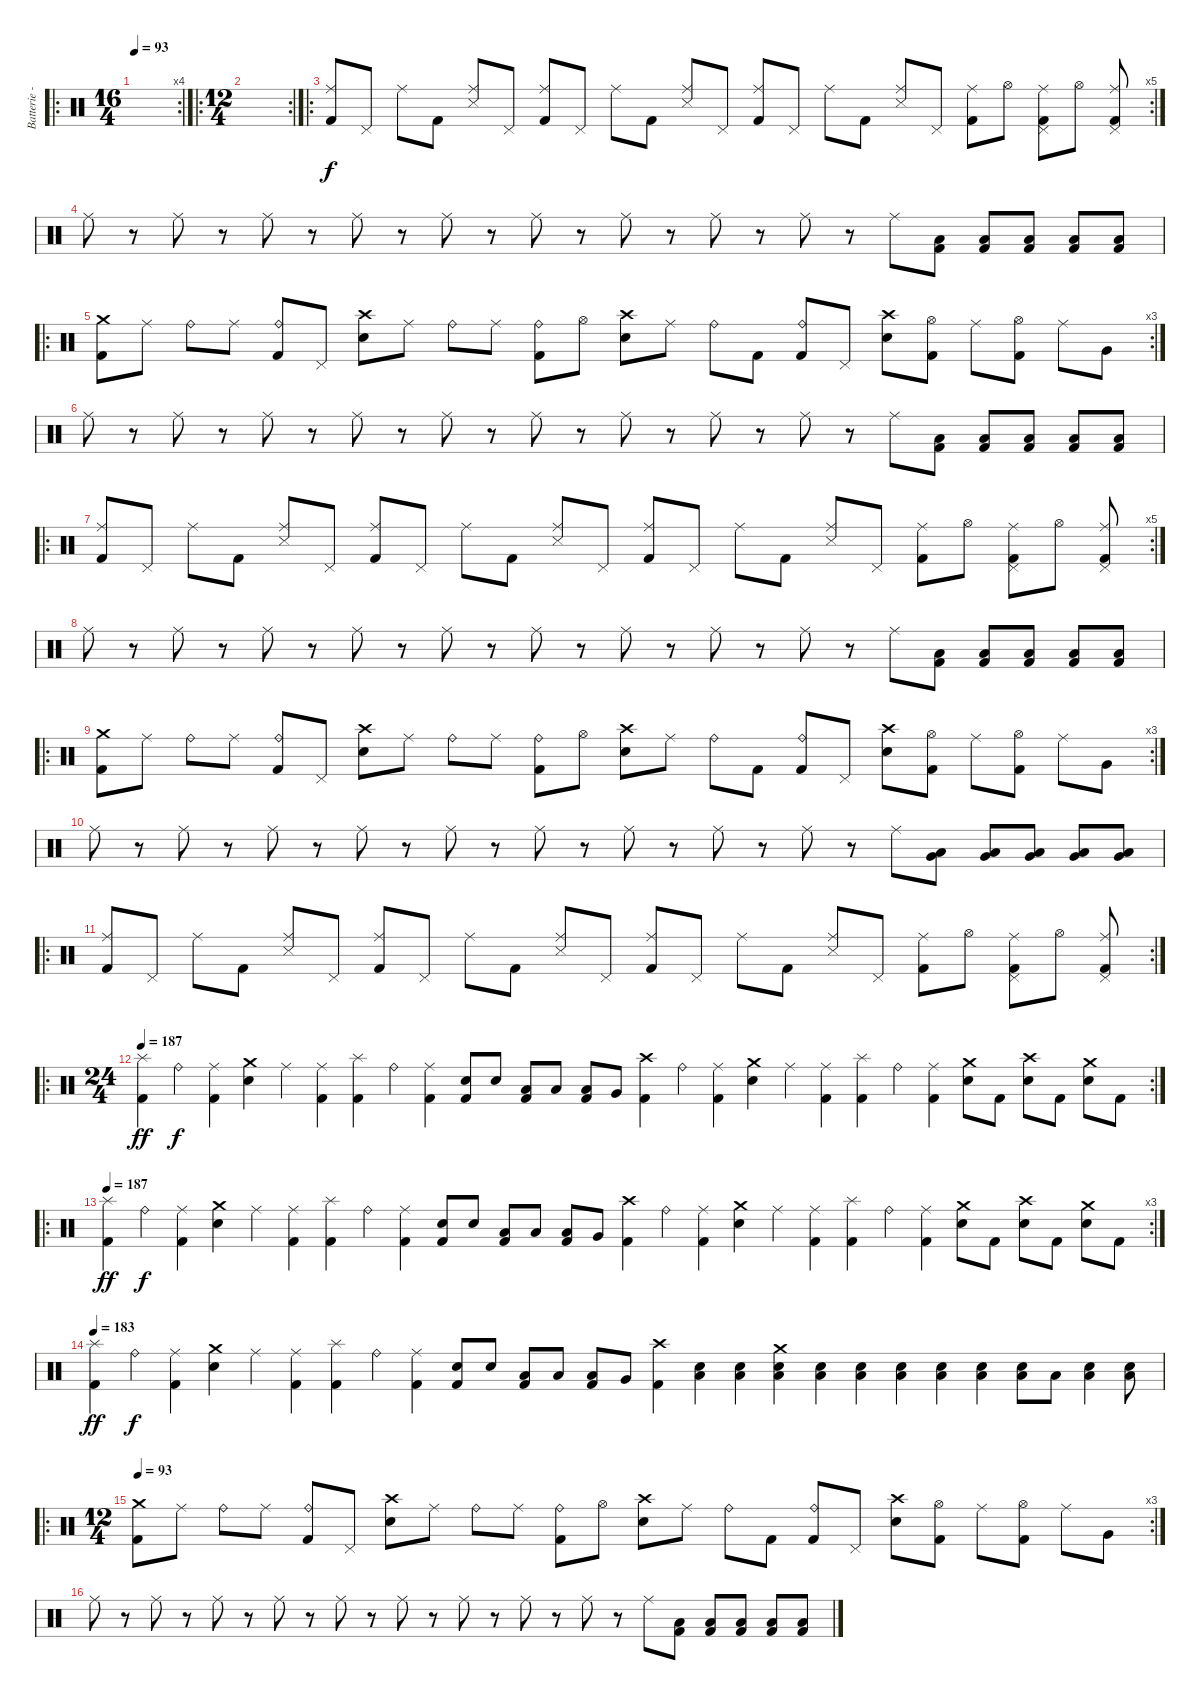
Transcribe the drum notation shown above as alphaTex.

\track ("Batterie - " "Batterie -") {instrument percussion}
\staff {score}
\articulation defaults
\ro
\rc 4
\ts (16 4)
\tempo 93
\clef neutral
\ks c
|
\ro
\rc 2
\ts (12 4)
|
\ro
\rc 5
("Kick (hit) 2" "Ride (middle)").8 "Pedal Hi-Hat (hit)".8 "Ride (middle)".8 "Kick (hit) 2".8 ("Snare (side stick) 3" "Ride (middle)").8 "Pedal Hi-Hat (hit)".8 ("Kick (hit) 2" "Ride (middle)").8 "Pedal Hi-Hat (hit)".8 "Ride (middle)".8 "Kick (hit) 2".8 ("Snare (side stick) 3" "Ride (middle)").8 "Pedal Hi-Hat (hit)".8 ("Kick (hit) 2" "Ride (middle)").8 "Pedal Hi-Hat (hit)".8 "Ride (middle)".8 "Kick (hit) 2".8 ("Snare (side stick) 3" "Ride (middle)").8 "Pedal Hi-Hat (hit)".8 ("Kick (hit) 2" "Ride (middle)").8 "Hi-Hat (open)".8 ("Kick (hit) 2" "Pedal Hi-Hat (hit)" "Ride (middle)").8 "Hi-Hat (open)".8 ("Kick (hit) 2" "Pedal Hi-Hat (hit)" "Ride (middle)").8 |
"Ride (middle)".8 r.8 "Ride (middle)".8 r.8 "Ride (middle)".8 r.8 "Ride (middle)".8 r.8 "Ride (middle)".8 r.8 "Ride (middle)".8 r.8 "Ride (middle)".8 r.8 "Ride (middle)".8 r.8 "Ride (middle)".8 r.8 "Ride (middle)".8 ("Kick (hit) 2" "Low Floor Tom (hit)").8 ("Kick (hit) 2" "Low Floor Tom (hit)").8 ("Kick (hit) 2" "Low Floor Tom (hit)").8 ("Kick (hit) 2" "Low Floor Tom (hit)").8 ("Kick (hit) 2" "Low Floor Tom (hit)").8 |
\ro
\rc 3
("Kick (hit) 2" "Crash medium (hit)").8 "Ride (middle)".8 "Ride (bell)".8 "Ride (middle)".8 ("Kick (hit) 2" "Ride (bell)").8 "Pedal Hi-Hat (hit)".8 ("Electric Snare (hit)" "Crash high (hit)").8 "Ride (middle)".8 "Ride (bell)".8 "Ride (middle)".8 ("Kick (hit) 2" "Ride (bell)").8 "Hi-Hat (open)".8 ("Electric Snare (hit)" "Crash high (hit)").8 "Ride (middle)".8 "Ride (bell)".8 "Kick (hit) 2".8 ("Kick (hit) 2" "Ride (bell)").8 "Pedal Hi-Hat (hit)".8 ("Electric Snare (hit)" "Crash high (hit)").8 ("Kick (hit) 2" "Hi-Hat (open)").8 "Ride (middle)".8 ("Kick (hit) 2" "Hi-Hat (open)").8 "Ride (middle)".8 "Very Low Tom (hit)".8 |
"Ride (middle)".8 r.8 "Ride (middle)".8 r.8 "Ride (middle)".8 r.8 "Ride (middle)".8 r.8 "Ride (middle)".8 r.8 "Ride (middle)".8 r.8 "Ride (middle)".8 r.8 "Ride (middle)".8 r.8 "Ride (middle)".8 r.8 "Ride (middle)".8 ("Kick (hit) 2" "Low Floor Tom (hit)").8 ("Kick (hit) 2" "Low Floor Tom (hit)").8 ("Kick (hit) 2" "Low Floor Tom (hit)").8 ("Kick (hit) 2" "Low Floor Tom (hit)").8 ("Kick (hit) 2" "Low Floor Tom (hit)").8 |
\ro
\rc 5
("Kick (hit) 2" "Ride (middle)").8 "Pedal Hi-Hat (hit)".8 "Ride (middle)".8 "Kick (hit) 2".8 ("Snare (side stick) 3" "Ride (middle)").8 "Pedal Hi-Hat (hit)".8 ("Kick (hit) 2" "Ride (middle)").8 "Pedal Hi-Hat (hit)".8 "Ride (middle)".8 "Kick (hit) 2".8 ("Snare (side stick) 3" "Ride (middle)").8 "Pedal Hi-Hat (hit)".8 ("Kick (hit) 2" "Ride (middle)").8 "Pedal Hi-Hat (hit)".8 "Ride (middle)".8 "Kick (hit) 2".8 ("Snare (side stick) 3" "Ride (middle)").8 "Pedal Hi-Hat (hit)".8 ("Kick (hit) 2" "Ride (middle)").8 "Hi-Hat (open)".8 ("Kick (hit) 2" "Pedal Hi-Hat (hit)" "Ride (middle)").8 "Hi-Hat (open)".8 ("Kick (hit) 2" "Pedal Hi-Hat (hit)" "Ride (middle)").8 |
"Ride (middle)".8 r.8 "Ride (middle)".8 r.8 "Ride (middle)".8 r.8 "Ride (middle)".8 r.8 "Ride (middle)".8 r.8 "Ride (middle)".8 r.8 "Ride (middle)".8 r.8 "Ride (middle)".8 r.8 "Ride (middle)".8 r.8 "Ride (middle)".8 ("Kick (hit) 2" "Low Floor Tom (hit)").8 ("Kick (hit) 2" "Low Floor Tom (hit)").8 ("Kick (hit) 2" "Low Floor Tom (hit)").8 ("Kick (hit) 2" "Low Floor Tom (hit)").8 ("Kick (hit) 2" "Low Floor Tom (hit)").8 |
\ro
\rc 3
("Kick (hit) 2" "Crash medium (hit)").8 "Ride (middle)".8 "Ride (bell)".8 "Ride (middle)".8 ("Kick (hit) 2" "Ride (bell)").8 "Pedal Hi-Hat (hit)".8 ("Electric Snare (hit)" "Crash high (hit)").8 "Ride (middle)".8 "Ride (bell)".8 "Ride (middle)".8 ("Kick (hit) 2" "Ride (bell)").8 "Hi-Hat (open)".8 ("Electric Snare (hit)" "Crash high (hit)").8 "Ride (middle)".8 "Ride (bell)".8 "Kick (hit) 2".8 ("Kick (hit) 2" "Ride (bell)").8 "Pedal Hi-Hat (hit)".8 ("Electric Snare (hit)" "Crash high (hit)").8 ("Kick (hit) 2" "Hi-Hat (open)").8 "Ride (middle)".8 ("Kick (hit) 2" "Hi-Hat (open)").8 "Ride (middle)".8 "Very Low Tom (hit)".8 |
"Ride (middle)".8 r.8 "Ride (middle)".8 r.8 "Ride (middle)".8 r.8 "Ride (middle)".8 r.8 "Ride (middle)".8 r.8 "Ride (middle)".8 r.8 "Ride (middle)".8 r.8 "Ride (middle)".8 r.8 "Ride (middle)".8 r.8 "Ride (middle)".8 ("Very Low Tom (hit)" "Low Floor Tom (hit)").8 ("Very Low Tom (hit)" "Low Floor Tom (hit)").8 ("Very Low Tom (hit)" "Low Floor Tom (hit)").8 ("Very Low Tom (hit)" "Low Floor Tom (hit)").8 ("Very Low Tom (hit)" "Low Floor Tom (hit)").8 |
\ro
\rc 2
("Kick (hit) 2" "Ride (middle)").8 "Pedal Hi-Hat (hit)".8 "Ride (middle)".8 "Kick (hit) 2".8 ("Snare (side stick) 3" "Ride (middle)").8 "Pedal Hi-Hat (hit)".8 ("Kick (hit) 2" "Ride (middle)").8 "Pedal Hi-Hat (hit)".8 "Ride (middle)".8 "Kick (hit) 2".8 ("Snare (side stick) 3" "Ride (middle)").8 "Pedal Hi-Hat (hit)".8 ("Kick (hit) 2" "Ride (middle)").8 "Pedal Hi-Hat (hit)".8 "Ride (middle)".8 "Kick (hit) 2".8 ("Snare (side stick) 3" "Ride (middle)").8 "Pedal Hi-Hat (hit)".8 ("Kick (hit) 2" "Ride (middle)").8 "Hi-Hat (open)".8 ("Kick (hit) 2" "Pedal Hi-Hat (hit)" "Ride (middle)").8 "Hi-Hat (open)".8 ("Kick (hit) 2" "Pedal Hi-Hat (hit)" "Ride (middle)").8 |
\ro
\rc 2
\ts (24 4)
\tempo 183
\tempo 187
("Kick (hit) 2" "Splash (hit)").4{dy ff} "Ride (bell)".4{dy f} ("Kick (hit) 2" "Ride (middle)").4 ("Crash medium (hit)" "Electric Snare (hit)").4 "Ride (middle)".4 ("Kick (hit) 2" "Ride (middle)").4 ("Kick (hit) 2" "Splash (hit)").4 "Ride (bell)".4 ("Kick (hit) 2" "Ride (middle)").4 ("Kick (hit) 2" "Electric Snare (hit)").8 "Electric Snare (hit)".8 ("Kick (hit) 2" "Low Tom (hit)").8 "Low Tom (hit)".8 ("Kick (hit) 2" "Low Tom (hit)").8 "Very Low Tom (hit)".8 ("Kick (hit) 2" "Crash high (hit)").4 "Ride (bell)".4 ("Kick (hit) 2" "Ride (middle)").4 ("Crash medium (hit)" "Electric Snare (hit)").4 "Ride (middle)".4 ("Kick (hit) 2" "Ride (middle)").4 ("Kick (hit) 2" "Splash (hit)").4 "Ride (bell)".4 ("Kick (hit) 2" "Ride (middle)").4 ("Crash medium (hit)" "Electric Snare (hit)").8 "Kick (hit) 2".8 ("Crash high (hit)" "Electric Snare (hit)").8 "Kick (hit) 2".8 ("Crash medium (hit)" "Electric Snare (hit)").8 "Kick (hit) 2".8 |
\ro
\rc 3
\tempo 183
\tempo 187
("Kick (hit) 2" "Splash (hit)").4{dy ff} "Ride (bell)".4{dy f} ("Kick (hit) 2" "Ride (middle)").4 ("Crash medium (hit)" "Electric Snare (hit)").4 "Ride (middle)".4 ("Kick (hit) 2" "Ride (middle)").4 ("Kick (hit) 2" "Splash (hit)").4 "Ride (bell)".4 ("Kick (hit) 2" "Ride (middle)").4 ("Kick (hit) 2" "Electric Snare (hit)").8 "Electric Snare (hit)".8 ("Kick (hit) 2" "Low Tom (hit)").8 "Low Tom (hit)".8 ("Kick (hit) 2" "Low Tom (hit)").8 "Very Low Tom (hit)".8 ("Kick (hit) 2" "Crash high (hit)").4 "Ride (bell)".4 ("Kick (hit) 2" "Ride (middle)").4 ("Crash medium (hit)" "Electric Snare (hit)").4 "Ride (middle)".4 ("Kick (hit) 2" "Ride (middle)").4 ("Kick (hit) 2" "Splash (hit)").4 "Ride (bell)".4 ("Kick (hit) 2" "Ride (middle)").4 ("Crash medium (hit)" "Electric Snare (hit)").8 "Kick (hit) 2".8 ("Crash high (hit)" "Electric Snare (hit)").8 "Kick (hit) 2".8 ("Crash medium (hit)" "Electric Snare (hit)").8 "Kick (hit) 2".8 |
\tempo 183
("Kick (hit) 2" "Splash (hit)").4{dy ff} "Ride (bell)".4{dy f} ("Kick (hit) 2" "Ride (middle)").4 ("Crash medium (hit)" "Electric Snare (hit)").4 "Ride (middle)".4 ("Kick (hit) 2" "Ride (middle)").4 ("Kick (hit) 2" "Splash (hit)").4 "Ride (bell)".4 ("Kick (hit) 2" "Ride (middle)").4 ("Kick (hit) 2" "Electric Snare (hit)").8 "Electric Snare (hit)".8 ("Kick (hit) 2" "Low Tom (hit)").8 "Low Tom (hit)".8 ("Kick (hit) 2" "Low Tom (hit)").8 "Very Low Tom (hit)".8 ("Kick (hit) 2" "Crash high (hit)").4 ("Electric Snare (hit)" "Low Floor Tom (hit)").4 ("Electric Snare (hit)" "Low Floor Tom (hit)").4 ("Electric Snare (hit)" "Crash medium (hit)" "Low Floor Tom (hit)").4 ("Electric Snare (hit)" "Low Floor Tom (hit)").4 ("Electric Snare (hit)" "Low Floor Tom (hit)").4 ("Electric Snare (hit)" "Low Floor Tom (hit)").4 ("Electric Snare (hit)" "Low Floor Tom (hit)").4 ("Electric Snare (hit)" "Low Floor Tom (hit)").4 ("Electric Snare (hit)" "Low Floor Tom (hit)").8 "Low Floor Tom (hit)".8 ("Electric Snare (hit)" "Low Floor Tom (hit)").4 ("Electric Snare (hit)" "Low Floor Tom (hit)").8 |
\ro
\rc 3
\ts (12 4)
\tempo 93
("Kick (hit) 2" "Crash medium (hit)").8 "Ride (middle)".8 "Ride (bell)".8 "Ride (middle)".8 ("Kick (hit) 2" "Ride (bell)").8 "Pedal Hi-Hat (hit)".8 ("Electric Snare (hit)" "Crash high (hit)").8 "Ride (middle)".8 "Ride (bell)".8 "Ride (middle)".8 ("Kick (hit) 2" "Ride (bell)").8 "Hi-Hat (open)".8 ("Electric Snare (hit)" "Crash high (hit)").8 "Ride (middle)".8 "Ride (bell)".8 "Kick (hit) 2".8 ("Kick (hit) 2" "Ride (bell)").8 "Pedal Hi-Hat (hit)".8 ("Electric Snare (hit)" "Crash high (hit)").8 ("Kick (hit) 2" "Hi-Hat (open)").8 "Ride (middle)".8 ("Kick (hit) 2" "Hi-Hat (open)").8 "Ride (middle)".8 "Very Low Tom (hit)".8 |
"Ride (middle)".8 r.8 "Ride (middle)".8 r.8 "Ride (middle)".8 r.8 "Ride (middle)".8 r.8 "Ride (middle)".8 r.8 "Ride (middle)".8 r.8 "Ride (middle)".8 r.8 "Ride (middle)".8 r.8 "Ride (middle)".8 r.8 "Ride (middle)".8 ("Kick (hit) 2" "Low Floor Tom (hit)").8 ("Kick (hit) 2" "Low Floor Tom (hit)").8 ("Kick (hit) 2" "Low Floor Tom (hit)").8 ("Kick (hit) 2" "Low Floor Tom (hit)").8 ("Kick (hit) 2" "Low Floor Tom (hit)").8
